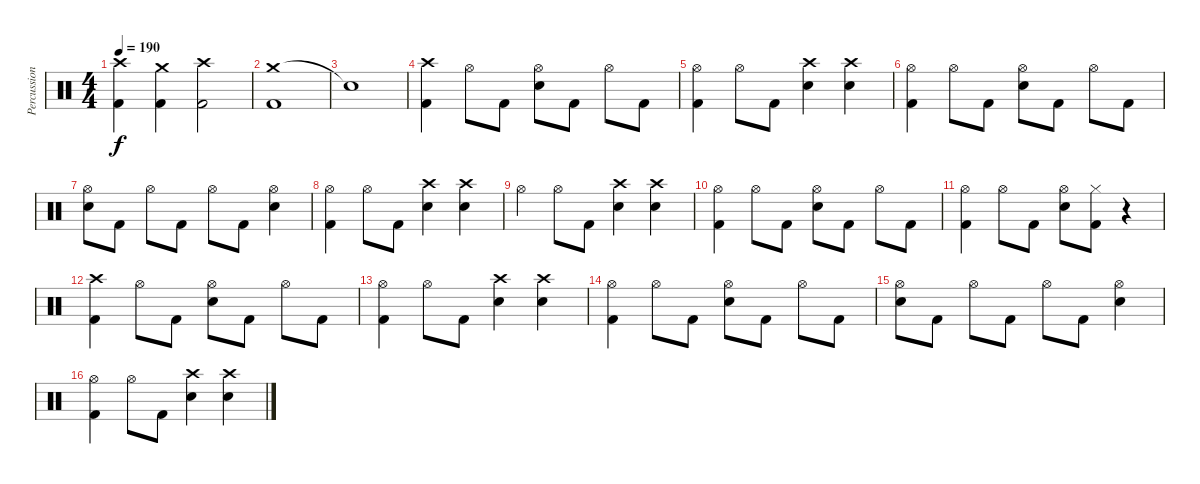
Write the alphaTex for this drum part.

\track ("Percussion" "Percussion") {instrument percussion}
\staff {score}
\articulation defaults
\ts (4 4)
\tempo 190
\clef neutral
\ks c
("Crash high (hit)" "Kick (hit) 2").4{dy f} ("Crash medium (hit)" "Kick (hit) 2").4 ("Crash high (hit)" "Kick (hit) 2").2 |
("Crash medium (hit)" "Kick (hit) 2").1 |
"Snare (hit)"{t}.1 |
("Crash high (hit)" "Kick (hit) 2").4 "Hi-Hat (open)".8 "Kick (hit) 2".8 ("Hi-Hat (open)" "Snare (hit) 2").8 "Kick (hit) 2".8 "Hi-Hat (open)".8 "Kick (hit) 2".8 |
("Hi-Hat (open)" "Kick (hit) 2").4 "Hi-Hat (open)".8 "Kick (hit) 2".8 ("Crash high (hit)" "Snare (hit) 2").4 ("Crash high (hit)" "Snare (hit) 2").4 |
("Hi-Hat (open)" "Kick (hit) 2").4 "Hi-Hat (open)".8 "Kick (hit) 2".8 ("Hi-Hat (open)" "Snare (hit) 2").8 "Kick (hit) 2".8 "Hi-Hat (open)".8 "Kick (hit) 2".8 |
("Hi-Hat (open)" "Snare (hit) 2").8 "Kick (hit) 2".8 "Hi-Hat (open)".8 "Kick (hit) 2".8 "Hi-Hat (open)".8 "Kick (hit) 2".8 ("Hi-Hat (open)" "Snare (hit) 2").4 |
("Hi-Hat (open)" "Kick (hit) 2").4 "Hi-Hat (open)".8 "Kick (hit) 2".8 ("Crash high (hit)" "Snare (hit) 2").4 ("Crash high (hit)" "Snare (hit) 2").4 |
"Hi-Hat (open)".4 "Hi-Hat (open)".8 "Kick (hit) 2".8 ("Crash high (hit)" "Snare (hit) 2").4 ("Crash high (hit)" "Snare (hit) 2").4 |
("Hi-Hat (open)" "Kick (hit) 2").4 "Hi-Hat (open)".8 "Kick (hit) 2".8 ("Hi-Hat (open)" "Snare (hit) 2").8 "Kick (hit) 2".8 "Hi-Hat (open)".8 "Kick (hit) 2".8 |
("Hi-Hat (open)" "Kick (hit) 2").4 "Hi-Hat (open)".8 "Kick (hit) 2".8 ("Hi-Hat (open)" "Snare (hit) 2").8 ("Hi-Hat (closed)" "Kick (hit) 2").8 r.4 |
("Crash high (hit)" "Kick (hit) 2").4 "Hi-Hat (open)".8 "Kick (hit) 2".8 ("Hi-Hat (open)" "Snare (hit) 2").8 "Kick (hit) 2".8 "Hi-Hat (open)".8 "Kick (hit) 2".8 |
("Hi-Hat (open)" "Kick (hit) 2").4 "Hi-Hat (open)".8 "Kick (hit) 2".8 ("Crash high (hit)" "Snare (hit) 2").4 ("Crash high (hit)" "Snare (hit) 2").4 |
("Hi-Hat (open)" "Kick (hit) 2").4 "Hi-Hat (open)".8 "Kick (hit) 2".8 ("Hi-Hat (open)" "Snare (hit) 2").8 "Kick (hit) 2".8 "Hi-Hat (open)".8 "Kick (hit) 2".8 |
("Hi-Hat (open)" "Snare (hit) 2").8 "Kick (hit) 2".8 "Hi-Hat (open)".8 "Kick (hit) 2".8 "Hi-Hat (open)".8 "Kick (hit) 2".8 ("Hi-Hat (open)" "Snare (hit) 2").4 |
("Hi-Hat (open)" "Kick (hit) 2").4 "Hi-Hat (open)".8 "Kick (hit) 2".8 ("Crash high (hit)" "Snare (hit) 2").4 ("Crash high (hit)" "Snare (hit) 2").4
